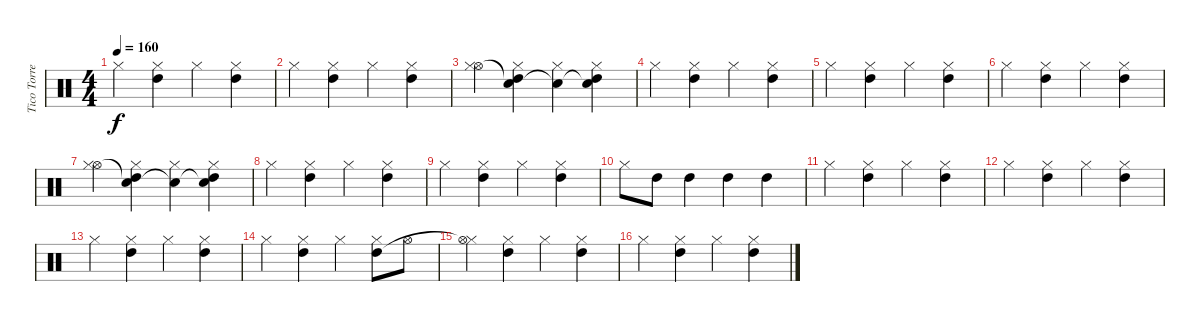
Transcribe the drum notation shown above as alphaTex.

\track ("Tico Torres" "Tico Torre") {instrument percussion}
\staff {score}
\articulation defaults
\ts (4 4)
\tempo 160
\clef neutral
\ks c "Hi-Hat (closed)".4{dy f}
("Hi-Hat (closed)" "High Tom (hit)").4 "Hi-Hat (closed)".4 ("Hi-Hat (closed)" "High Tom (hit)").4 |
"Hi-Hat (closed)".4 ("Hi-Hat (closed)" "High Tom (hit)").4 "Hi-Hat (closed)".4 ("Hi-Hat (closed)" "High Tom (hit)").4 |
("Hi-Hat (open)" "Hi-Hat (closed)").4 ("Snare (hit)"{t} "Hi-Hat (closed)" "High Tom (hit)").4 ("Snare (hit)"{t} "Hi-Hat (closed)").4 ("Snare (hit)"{t} "Hi-Hat (closed)" "High Tom (hit)").4 |
"Hi-Hat (closed)".4 ("Hi-Hat (closed)" "High Tom (hit)").4 "Hi-Hat (closed)".4 ("Hi-Hat (closed)" "High Tom (hit)").4 |
"Hi-Hat (closed)".4 ("Hi-Hat (closed)" "High Tom (hit)").4 "Hi-Hat (closed)".4 ("Hi-Hat (closed)" "High Tom (hit)").4 |
"Hi-Hat (closed)".4 ("Hi-Hat (closed)" "High Tom (hit)").4 "Hi-Hat (closed)".4 ("Hi-Hat (closed)" "High Tom (hit)").4 |
("Hi-Hat (open)" "Hi-Hat (closed)").4 ("Snare (hit)"{t} "Hi-Hat (closed)" "High Tom (hit)").4 ("Snare (hit)"{t} "Hi-Hat (closed)").4 ("Snare (hit)"{t} "Hi-Hat (closed)" "High Tom (hit)").4 |
"Hi-Hat (closed)".4 ("Hi-Hat (closed)" "High Tom (hit)").4 "Hi-Hat (closed)".4 ("Hi-Hat (closed)" "High Tom (hit)").4 |
"Hi-Hat (closed)".4 ("Hi-Hat (closed)" "High Tom (hit)").4 "Hi-Hat (closed)".4 ("Hi-Hat (closed)" "High Tom (hit)").4 |
"Hi-Hat (closed)".8 "High Tom (hit)".8 "High Tom (hit)".4 "High Tom (hit)".4 "High Tom (hit)".4 |
"Hi-Hat (closed)".4 ("Hi-Hat (closed)" "High Tom (hit)").4 "Hi-Hat (closed)".4 ("Hi-Hat (closed)" "High Tom (hit)").4 |
"Hi-Hat (closed)".4 ("Hi-Hat (closed)" "High Tom (hit)").4 "Hi-Hat (closed)".4 ("Hi-Hat (closed)" "High Tom (hit)").4 |
"Hi-Hat (closed)".4 ("Hi-Hat (closed)" "High Tom (hit)").4 "Hi-Hat (closed)".4 ("Hi-Hat (closed)" "High Tom (hit)").4 |
"Hi-Hat (closed)".4 ("Hi-Hat (closed)" "High Tom (hit)").4 "Hi-Hat (closed)".4 ("Hi-Hat (closed)" "High Tom (hit)").8 "Hi-Hat (open)".8 |
("Hi-Hat (closed)" "Hi-Hat (open)"{t}).4 ("Hi-Hat (closed)" "High Tom (hit)").4 "Hi-Hat (closed)".4 ("Hi-Hat (closed)" "High Tom (hit)").4 |
"Hi-Hat (closed)".4 ("Hi-Hat (closed)" "High Tom (hit)").4 "Hi-Hat (closed)".4 ("Hi-Hat (closed)" "High Tom (hit)").4
